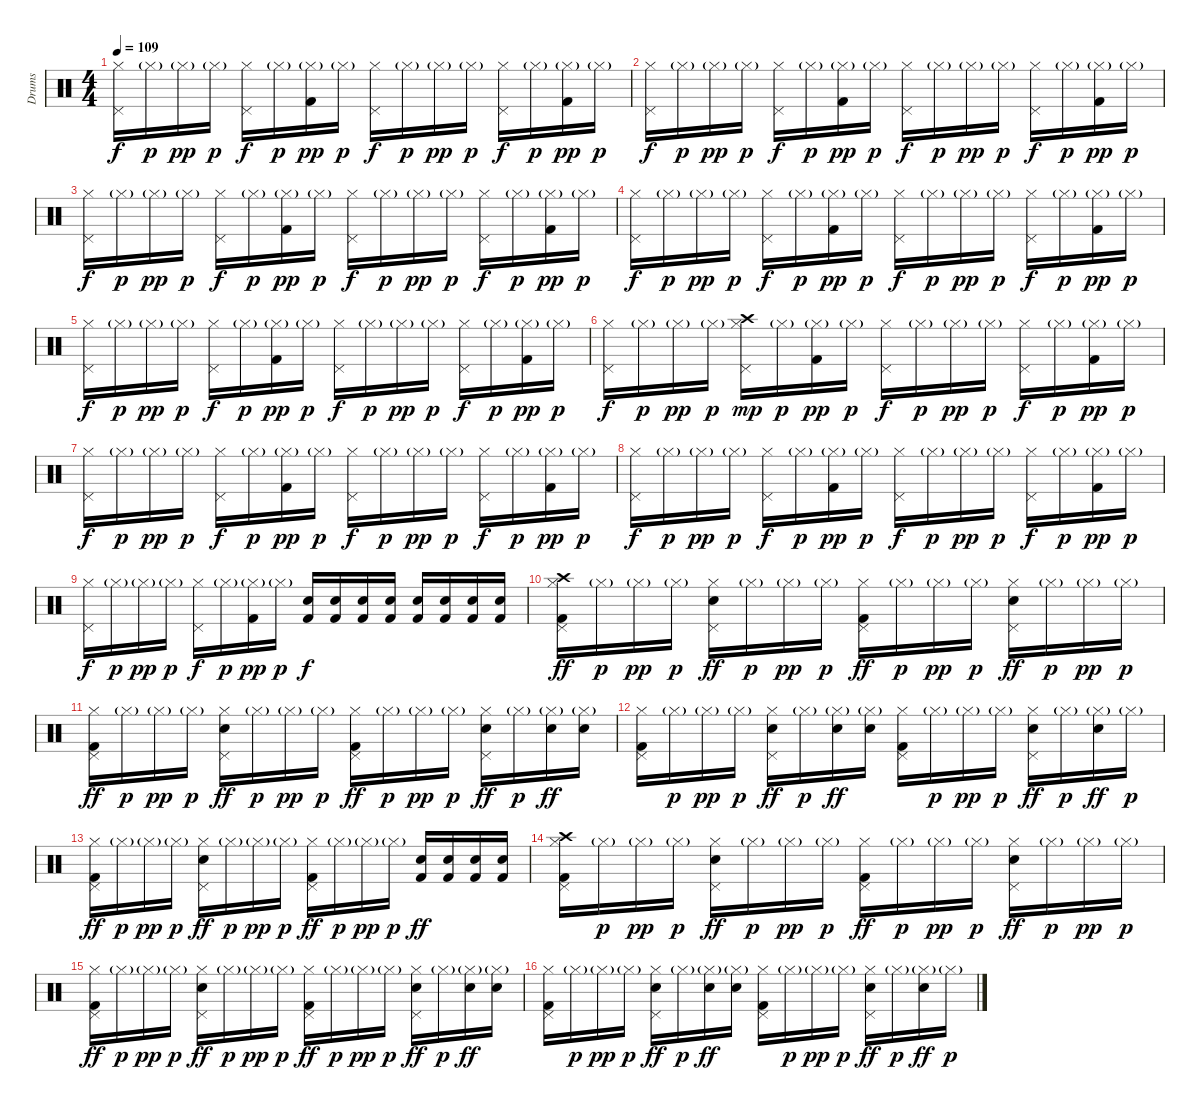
\track ("Drums" "Drums") {instrument percussion}
\staff {score}
\articulation defaults
\ts (4 4)
\tempo 109
\clef neutral
\ks c
("Hi-Hat (closed)" "Pedal Hi-Hat (hit)").16{dy f} "Hi-Hat (closed)"{g}.16{dy p} "Hi-Hat (closed)"{g}.16{dy pp} "Hi-Hat (closed)"{g}.16{dy p} ("Hi-Hat (closed)" "Pedal Hi-Hat (hit)").16{dy f} "Hi-Hat (closed)"{g}.16{dy p} ("Hi-Hat (closed)"{g} "Kick (hit) 2").16{dy pp} "Hi-Hat (closed)"{g}.16{dy p} ("Hi-Hat (closed)" "Pedal Hi-Hat (hit)").16{dy f} "Hi-Hat (closed)"{g}.16{dy p} "Hi-Hat (closed)"{g}.16{dy pp} "Hi-Hat (closed)"{g}.16{dy p} ("Hi-Hat (closed)" "Pedal Hi-Hat (hit)").16{dy f} "Hi-Hat (closed)"{g}.16{dy p} ("Hi-Hat (closed)"{g} "Kick (hit) 2").16{dy pp} "Hi-Hat (closed)"{g}.16{dy p} |
("Hi-Hat (closed)" "Pedal Hi-Hat (hit)").16{dy f} "Hi-Hat (closed)"{g}.16{dy p} "Hi-Hat (closed)"{g}.16{dy pp} "Hi-Hat (closed)"{g}.16{dy p} ("Hi-Hat (closed)" "Pedal Hi-Hat (hit)").16{dy f} "Hi-Hat (closed)"{g}.16{dy p} ("Hi-Hat (closed)"{g} "Kick (hit) 2").16{dy pp} "Hi-Hat (closed)"{g}.16{dy p} ("Hi-Hat (closed)" "Pedal Hi-Hat (hit)").16{dy f} "Hi-Hat (closed)"{g}.16{dy p} "Hi-Hat (closed)"{g}.16{dy pp} "Hi-Hat (closed)"{g}.16{dy p} ("Hi-Hat (closed)" "Pedal Hi-Hat (hit)").16{dy f} "Hi-Hat (closed)"{g}.16{dy p} ("Hi-Hat (closed)"{g} "Kick (hit) 2").16{dy pp} "Hi-Hat (closed)"{g}.16{dy p} |
("Hi-Hat (closed)" "Pedal Hi-Hat (hit)").16{dy f} "Hi-Hat (closed)"{g}.16{dy p} "Hi-Hat (closed)"{g}.16{dy pp} "Hi-Hat (closed)"{g}.16{dy p} ("Hi-Hat (closed)" "Pedal Hi-Hat (hit)").16{dy f} "Hi-Hat (closed)"{g}.16{dy p} ("Hi-Hat (closed)"{g} "Kick (hit) 2").16{dy pp} "Hi-Hat (closed)"{g}.16{dy p} ("Hi-Hat (closed)" "Pedal Hi-Hat (hit)").16{dy f} "Hi-Hat (closed)"{g}.16{dy p} "Hi-Hat (closed)"{g}.16{dy pp} "Hi-Hat (closed)"{g}.16{dy p} ("Hi-Hat (closed)" "Pedal Hi-Hat (hit)").16{dy f} "Hi-Hat (closed)"{g}.16{dy p} ("Hi-Hat (closed)"{g} "Kick (hit) 2").16{dy pp} "Hi-Hat (closed)"{g}.16{dy p} |
("Hi-Hat (closed)" "Pedal Hi-Hat (hit)").16{dy f} "Hi-Hat (closed)"{g}.16{dy p} "Hi-Hat (closed)"{g}.16{dy pp} "Hi-Hat (closed)"{g}.16{dy p} ("Hi-Hat (closed)" "Pedal Hi-Hat (hit)").16{dy f} "Hi-Hat (closed)"{g}.16{dy p} ("Hi-Hat (closed)"{g} "Kick (hit) 2").16{dy pp} "Hi-Hat (closed)"{g}.16{dy p} ("Hi-Hat (closed)" "Pedal Hi-Hat (hit)").16{dy f} "Hi-Hat (closed)"{g}.16{dy p} "Hi-Hat (closed)"{g}.16{dy pp} "Hi-Hat (closed)"{g}.16{dy p} ("Hi-Hat (closed)" "Pedal Hi-Hat (hit)").16{dy f} "Hi-Hat (closed)"{g}.16{dy p} ("Hi-Hat (closed)"{g} "Kick (hit) 2").16{dy pp} "Hi-Hat (closed)"{g}.16{dy p} |
("Hi-Hat (closed)" "Pedal Hi-Hat (hit)").16{dy f} "Hi-Hat (closed)"{g}.16{dy p} "Hi-Hat (closed)"{g}.16{dy pp} "Hi-Hat (closed)"{g}.16{dy p} ("Hi-Hat (closed)" "Pedal Hi-Hat (hit)").16{dy f} "Hi-Hat (closed)"{g}.16{dy p} ("Hi-Hat (closed)"{g} "Kick (hit) 2").16{dy pp} "Hi-Hat (closed)"{g}.16{dy p} ("Hi-Hat (closed)" "Pedal Hi-Hat (hit)").16{dy f} "Hi-Hat (closed)"{g}.16{dy p} "Hi-Hat (closed)"{g}.16{dy pp} "Hi-Hat (closed)"{g}.16{dy p} ("Hi-Hat (closed)" "Pedal Hi-Hat (hit)").16{dy f} "Hi-Hat (closed)"{g}.16{dy p} ("Hi-Hat (closed)"{g} "Kick (hit) 2").16{dy pp} "Hi-Hat (closed)"{g}.16{dy p} |
("Hi-Hat (closed)" "Pedal Hi-Hat (hit)").16{dy f} "Hi-Hat (closed)"{g}.16{dy p} "Hi-Hat (closed)"{g}.16{dy pp} "Hi-Hat (closed)"{g}.16{dy p} ("Hi-Hat (closed)" "Pedal Hi-Hat (hit)" "Crash high (hit)").16{dy mp} "Hi-Hat (closed)"{g}.16{dy p} ("Hi-Hat (closed)"{g} "Kick (hit) 2").16{dy pp} "Hi-Hat (closed)"{g}.16{dy p} ("Hi-Hat (closed)" "Pedal Hi-Hat (hit)").16{dy f} "Hi-Hat (closed)"{g}.16{dy p} "Hi-Hat (closed)"{g}.16{dy pp} "Hi-Hat (closed)"{g}.16{dy p} ("Hi-Hat (closed)" "Pedal Hi-Hat (hit)").16{dy f} "Hi-Hat (closed)"{g}.16{dy p} ("Hi-Hat (closed)"{g} "Kick (hit) 2").16{dy pp} "Hi-Hat (closed)"{g}.16{dy p} |
("Hi-Hat (closed)" "Pedal Hi-Hat (hit)").16{dy f} "Hi-Hat (closed)"{g}.16{dy p} "Hi-Hat (closed)"{g}.16{dy pp} "Hi-Hat (closed)"{g}.16{dy p} ("Hi-Hat (closed)" "Pedal Hi-Hat (hit)").16{dy f} "Hi-Hat (closed)"{g}.16{dy p} ("Hi-Hat (closed)"{g} "Kick (hit) 2").16{dy pp} "Hi-Hat (closed)"{g}.16{dy p} ("Hi-Hat (closed)" "Pedal Hi-Hat (hit)").16{dy f} "Hi-Hat (closed)"{g}.16{dy p} "Hi-Hat (closed)"{g}.16{dy pp} "Hi-Hat (closed)"{g}.16{dy p} ("Hi-Hat (closed)" "Pedal Hi-Hat (hit)").16{dy f} "Hi-Hat (closed)"{g}.16{dy p} ("Hi-Hat (closed)"{g} "Kick (hit) 2").16{dy pp} "Hi-Hat (closed)"{g}.16{dy p} |
("Hi-Hat (closed)" "Pedal Hi-Hat (hit)").16{dy f} "Hi-Hat (closed)"{g}.16{dy p} "Hi-Hat (closed)"{g}.16{dy pp} "Hi-Hat (closed)"{g}.16{dy p} ("Hi-Hat (closed)" "Pedal Hi-Hat (hit)").16{dy f} "Hi-Hat (closed)"{g}.16{dy p} ("Hi-Hat (closed)"{g} "Kick (hit) 2").16{dy pp} "Hi-Hat (closed)"{g}.16{dy p} ("Hi-Hat (closed)" "Pedal Hi-Hat (hit)").16{dy f} "Hi-Hat (closed)"{g}.16{dy p} "Hi-Hat (closed)"{g}.16{dy pp} "Hi-Hat (closed)"{g}.16{dy p} ("Hi-Hat (closed)" "Pedal Hi-Hat (hit)").16{dy f} "Hi-Hat (closed)"{g}.16{dy p} ("Hi-Hat (closed)"{g} "Kick (hit) 2").16{dy pp} "Hi-Hat (closed)"{g}.16{dy p} |
("Hi-Hat (closed)" "Pedal Hi-Hat (hit)").16{dy f} "Hi-Hat (closed)"{g}.16{dy p} "Hi-Hat (closed)"{g}.16{dy pp} "Hi-Hat (closed)"{g}.16{dy p} ("Hi-Hat (closed)" "Pedal Hi-Hat (hit)").16{dy f} "Hi-Hat (closed)"{g}.16{dy p} ("Hi-Hat (closed)"{g} "Kick (hit) 2").16{dy pp} "Hi-Hat (closed)"{g}.16{dy p} ("Kick (hit) 2" "Electric Snare (hit)").16{dy f} ("Kick (hit) 2" "Electric Snare (hit)").16 ("Kick (hit) 2" "Electric Snare (hit)").16 ("Kick (hit) 2" "Electric Snare (hit)").16 ("Kick (hit) 2" "Electric Snare (hit)").16 ("Kick (hit) 2" "Electric Snare (hit)").16 ("Kick (hit) 2" "Electric Snare (hit)").16 ("Kick (hit) 2" "Electric Snare (hit)").16 |
("Hi-Hat (closed)" "Pedal Hi-Hat (hit)" "Kick (hit) 2" "Crash high (hit)").16{dy ff} "Hi-Hat (closed)"{g}.16{dy p} "Hi-Hat (closed)"{g}.16{dy pp} "Hi-Hat (closed)"{g}.16{dy p} ("Hi-Hat (closed)" "Pedal Hi-Hat (hit)" "Electric Snare (hit)").16{dy ff} "Hi-Hat (closed)"{g}.16{dy p} "Hi-Hat (closed)"{g}.16{dy pp} "Hi-Hat (closed)"{g}.16{dy p} ("Hi-Hat (closed)" "Pedal Hi-Hat (hit)" "Kick (hit) 2").16{dy ff} "Hi-Hat (closed)"{g}.16{dy p} "Hi-Hat (closed)"{g}.16{dy pp} "Hi-Hat (closed)"{g}.16{dy p} ("Hi-Hat (closed)" "Pedal Hi-Hat (hit)" "Electric Snare (hit)").16{dy ff} "Hi-Hat (closed)"{g}.16{dy p} "Hi-Hat (closed)"{g}.16{dy pp} "Hi-Hat (closed)"{g}.16{dy p} |
("Hi-Hat (closed)" "Pedal Hi-Hat (hit)" "Kick (hit) 2").16{dy ff} "Hi-Hat (closed)"{g}.16{dy p} "Hi-Hat (closed)"{g}.16{dy pp} "Hi-Hat (closed)"{g}.16{dy p} ("Hi-Hat (closed)" "Pedal Hi-Hat (hit)" "Electric Snare (hit)").16{dy ff} "Hi-Hat (closed)"{g}.16{dy p} "Hi-Hat (closed)"{g}.16{dy pp} "Hi-Hat (closed)"{g}.16{dy p} ("Hi-Hat (closed)" "Pedal Hi-Hat (hit)" "Kick (hit) 2").16{dy ff} "Hi-Hat (closed)"{g}.16{dy p} "Hi-Hat (closed)"{g}.16{dy pp} "Hi-Hat (closed)"{g}.16{dy p} ("Hi-Hat (closed)" "Pedal Hi-Hat (hit)" "Electric Snare (hit)").16{dy ff} "Hi-Hat (closed)"{g}.16{dy p} ("Hi-Hat (closed)"{g} "Electric Snare (hit)").16{dy ff} ("Hi-Hat (closed)"{g} "Electric Snare (hit)").16 |
("Hi-Hat (closed)" "Pedal Hi-Hat (hit)" "Kick (hit) 2").16 "Hi-Hat (closed)"{g}.16{dy p} "Hi-Hat (closed)"{g}.16{dy pp} "Hi-Hat (closed)"{g}.16{dy p} ("Hi-Hat (closed)" "Pedal Hi-Hat (hit)" "Electric Snare (hit)").16{dy ff} "Hi-Hat (closed)"{g}.16{dy p} ("Hi-Hat (closed)"{g} "Electric Snare (hit)").16{dy ff} ("Hi-Hat (closed)"{g} "Electric Snare (hit)").16 ("Hi-Hat (closed)" "Pedal Hi-Hat (hit)" "Kick (hit) 2").16 "Hi-Hat (closed)"{g}.16{dy p} "Hi-Hat (closed)"{g}.16{dy pp} "Hi-Hat (closed)"{g}.16{dy p} ("Hi-Hat (closed)" "Pedal Hi-Hat (hit)" "Electric Snare (hit)").16{dy ff} "Hi-Hat (closed)"{g}.16{dy p} ("Hi-Hat (closed)"{g} "Electric Snare (hit)").16{dy ff} "Hi-Hat (closed)"{g}.16{dy p} |
("Hi-Hat (closed)" "Pedal Hi-Hat (hit)" "Kick (hit) 2").16{dy ff} "Hi-Hat (closed)"{g}.16{dy p} "Hi-Hat (closed)"{g}.16{dy pp} "Hi-Hat (closed)"{g}.16{dy p} ("Hi-Hat (closed)" "Pedal Hi-Hat (hit)" "Electric Snare (hit)").16{dy ff} "Hi-Hat (closed)"{g}.16{dy p} "Hi-Hat (closed)"{g}.16{dy pp} "Hi-Hat (closed)"{g}.16{dy p} ("Hi-Hat (closed)" "Pedal Hi-Hat (hit)" "Kick (hit) 2").16{dy ff} "Hi-Hat (closed)"{g}.16{dy p} "Hi-Hat (closed)"{g}.16{dy pp} "Hi-Hat (closed)"{g}.16{dy p} ("Kick (hit) 2" "Electric Snare (hit)").16{dy ff} ("Kick (hit) 2" "Electric Snare (hit)").16 ("Kick (hit) 2" "Electric Snare (hit)").16 ("Kick (hit) 2" "Electric Snare (hit)").16 |
("Hi-Hat (closed)" "Pedal Hi-Hat (hit)" "Kick (hit) 2" "Crash high (hit)").16 "Hi-Hat (closed)"{g}.16{dy p} "Hi-Hat (closed)"{g}.16{dy pp} "Hi-Hat (closed)"{g}.16{dy p} ("Hi-Hat (closed)" "Pedal Hi-Hat (hit)" "Electric Snare (hit)").16{dy ff} "Hi-Hat (closed)"{g}.16{dy p} "Hi-Hat (closed)"{g}.16{dy pp} "Hi-Hat (closed)"{g}.16{dy p} ("Hi-Hat (closed)" "Pedal Hi-Hat (hit)" "Kick (hit) 2").16{dy ff} "Hi-Hat (closed)"{g}.16{dy p} "Hi-Hat (closed)"{g}.16{dy pp} "Hi-Hat (closed)"{g}.16{dy p} ("Hi-Hat (closed)" "Pedal Hi-Hat (hit)" "Electric Snare (hit)").16{dy ff} "Hi-Hat (closed)"{g}.16{dy p} "Hi-Hat (closed)"{g}.16{dy pp} "Hi-Hat (closed)"{g}.16{dy p} |
("Hi-Hat (closed)" "Pedal Hi-Hat (hit)" "Kick (hit) 2").16{dy ff} "Hi-Hat (closed)"{g}.16{dy p} "Hi-Hat (closed)"{g}.16{dy pp} "Hi-Hat (closed)"{g}.16{dy p} ("Hi-Hat (closed)" "Pedal Hi-Hat (hit)" "Electric Snare (hit)").16{dy ff} "Hi-Hat (closed)"{g}.16{dy p} "Hi-Hat (closed)"{g}.16{dy pp} "Hi-Hat (closed)"{g}.16{dy p} ("Hi-Hat (closed)" "Pedal Hi-Hat (hit)" "Kick (hit) 2").16{dy ff} "Hi-Hat (closed)"{g}.16{dy p} "Hi-Hat (closed)"{g}.16{dy pp} "Hi-Hat (closed)"{g}.16{dy p} ("Hi-Hat (closed)" "Pedal Hi-Hat (hit)" "Electric Snare (hit)").16{dy ff} "Hi-Hat (closed)"{g}.16{dy p} ("Hi-Hat (closed)"{g} "Electric Snare (hit)").16{dy ff} ("Hi-Hat (closed)"{g} "Electric Snare (hit)").16 |
("Hi-Hat (closed)" "Pedal Hi-Hat (hit)" "Kick (hit) 2").16 "Hi-Hat (closed)"{g}.16{dy p} "Hi-Hat (closed)"{g}.16{dy pp} "Hi-Hat (closed)"{g}.16{dy p} ("Hi-Hat (closed)" "Pedal Hi-Hat (hit)" "Electric Snare (hit)").16{dy ff} "Hi-Hat (closed)"{g}.16{dy p} ("Hi-Hat (closed)"{g} "Electric Snare (hit)").16{dy ff} ("Hi-Hat (closed)"{g} "Electric Snare (hit)").16 ("Hi-Hat (closed)" "Pedal Hi-Hat (hit)" "Kick (hit) 2").16 "Hi-Hat (closed)"{g}.16{dy p} "Hi-Hat (closed)"{g}.16{dy pp} "Hi-Hat (closed)"{g}.16{dy p} ("Hi-Hat (closed)" "Pedal Hi-Hat (hit)" "Electric Snare (hit)").16{dy ff} "Hi-Hat (closed)"{g}.16{dy p} ("Hi-Hat (closed)"{g} "Electric Snare (hit)").16{dy ff} "Hi-Hat (closed)"{g}.16{dy p}
